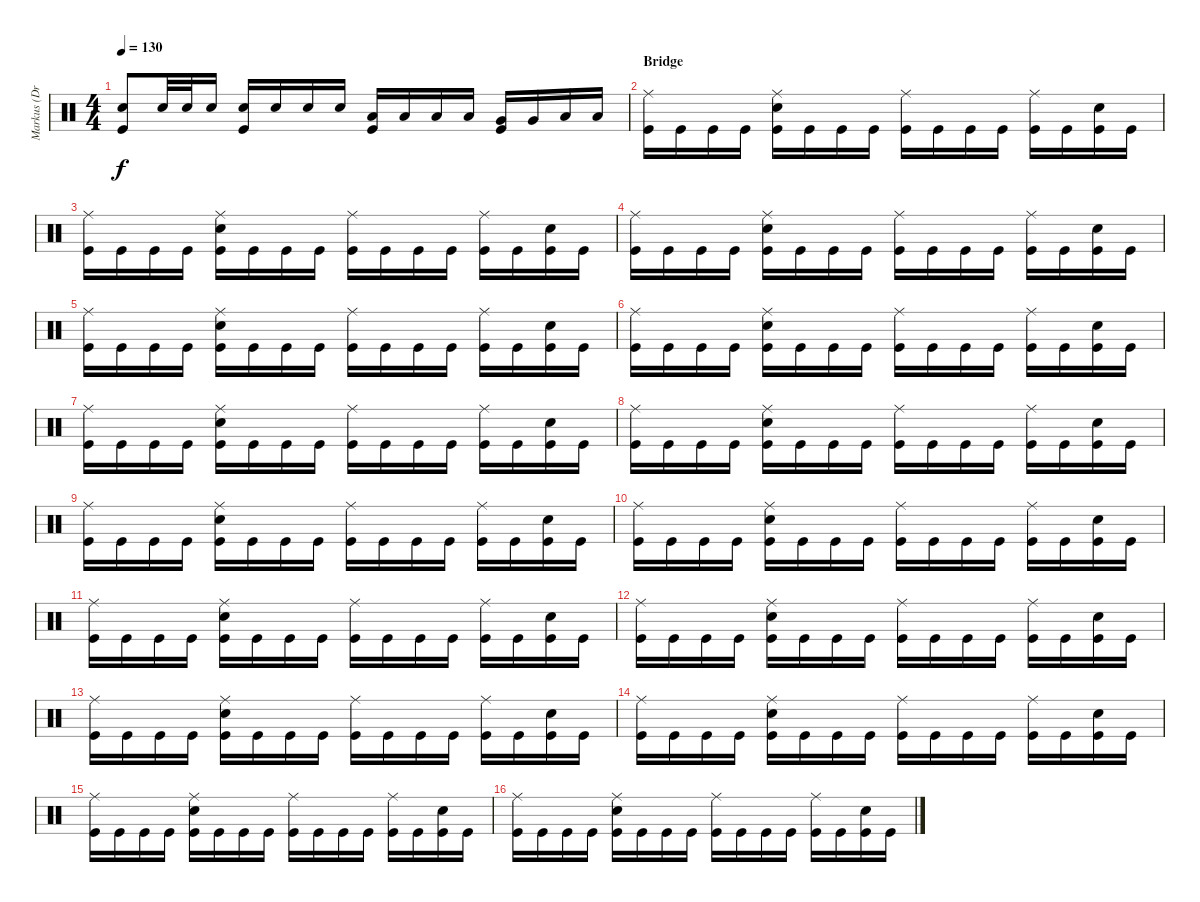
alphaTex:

\track ("Markus (Drums)" "Markus (Dr") {instrument percussion}
\staff {score}
\articulation defaults
\ts (4 4)
\tempo 130
\clef neutral
\ks c
("Electric Snare (hit)" "Kick (hit)").8{dy f} "Electric Snare (hit)".32 "Electric Snare (hit)".32 "Electric Snare (hit)".16 ("Electric Snare (hit)" "Kick (hit)").16 "Electric Snare (hit)".16 "Electric Snare (hit)".16 "Electric Snare (hit)".16 ("Low Tom (hit)" "Kick (hit)").16 "Low Tom (hit)".16 "Low Tom (hit)".16 "Low Tom (hit)".16 ("Very Low Tom (hit)" "Kick (hit)").16 "Very Low Tom (hit)".16 "Low Floor Tom (hit)".16 "Low Floor Tom (hit)".16 |
\section ("" "Bridge")
("Ride (middle)" "Kick (hit)").16 "Kick (hit)".16 "Kick (hit)".16 "Kick (hit)".16 ("Ride (middle)" "Electric Snare (hit)" "Kick (hit)").16 "Kick (hit)".16 "Kick (hit)".16 "Kick (hit)".16 ("Ride (middle)" "Kick (hit)").16 "Kick (hit)".16 "Kick (hit)".16 "Kick (hit)".16 ("Ride (middle)" "Kick (hit)").16 "Kick (hit)".16 ("Electric Snare (hit)" "Kick (hit)").16 "Kick (hit)".16 |
("Ride (middle)" "Kick (hit)").16 "Kick (hit)".16 "Kick (hit)".16 "Kick (hit)".16 ("Ride (middle)" "Electric Snare (hit)" "Kick (hit)").16 "Kick (hit)".16 "Kick (hit)".16 "Kick (hit)".16 ("Ride (middle)" "Kick (hit)").16 "Kick (hit)".16 "Kick (hit)".16 "Kick (hit)".16 ("Ride (middle)" "Kick (hit)").16 "Kick (hit)".16 ("Electric Snare (hit)" "Kick (hit)").16 "Kick (hit)".16 |
("Ride (middle)" "Kick (hit)").16 "Kick (hit)".16 "Kick (hit)".16 "Kick (hit)".16 ("Ride (middle)" "Electric Snare (hit)" "Kick (hit)").16 "Kick (hit)".16 "Kick (hit)".16 "Kick (hit)".16 ("Ride (middle)" "Kick (hit)").16 "Kick (hit)".16 "Kick (hit)".16 "Kick (hit)".16 ("Ride (middle)" "Kick (hit)").16 "Kick (hit)".16 ("Electric Snare (hit)" "Kick (hit)").16 "Kick (hit)".16 |
("Ride (middle)" "Kick (hit)").16 "Kick (hit)".16 "Kick (hit)".16 "Kick (hit)".16 ("Ride (middle)" "Electric Snare (hit)" "Kick (hit)").16 "Kick (hit)".16 "Kick (hit)".16 "Kick (hit)".16 ("Ride (middle)" "Kick (hit)").16 "Kick (hit)".16 "Kick (hit)".16 "Kick (hit)".16 ("Ride (middle)" "Kick (hit)").16 "Kick (hit)".16 ("Electric Snare (hit)" "Kick (hit)").16 "Kick (hit)".16 |
("Ride (middle)" "Kick (hit)").16 "Kick (hit)".16 "Kick (hit)".16 "Kick (hit)".16 ("Ride (middle)" "Electric Snare (hit)" "Kick (hit)").16 "Kick (hit)".16 "Kick (hit)".16 "Kick (hit)".16 ("Ride (middle)" "Kick (hit)").16 "Kick (hit)".16 "Kick (hit)".16 "Kick (hit)".16 ("Ride (middle)" "Kick (hit)").16 "Kick (hit)".16 ("Electric Snare (hit)" "Kick (hit)").16 "Kick (hit)".16 |
("Ride (middle)" "Kick (hit)").16 "Kick (hit)".16 "Kick (hit)".16 "Kick (hit)".16 ("Ride (middle)" "Electric Snare (hit)" "Kick (hit)").16 "Kick (hit)".16 "Kick (hit)".16 "Kick (hit)".16 ("Ride (middle)" "Kick (hit)").16 "Kick (hit)".16 "Kick (hit)".16 "Kick (hit)".16 ("Ride (middle)" "Kick (hit)").16 "Kick (hit)".16 ("Electric Snare (hit)" "Kick (hit)").16 "Kick (hit)".16 |
("Ride (middle)" "Kick (hit)").16 "Kick (hit)".16 "Kick (hit)".16 "Kick (hit)".16 ("Ride (middle)" "Electric Snare (hit)" "Kick (hit)").16 "Kick (hit)".16 "Kick (hit)".16 "Kick (hit)".16 ("Ride (middle)" "Kick (hit)").16 "Kick (hit)".16 "Kick (hit)".16 "Kick (hit)".16 ("Ride (middle)" "Kick (hit)").16 "Kick (hit)".16 ("Electric Snare (hit)" "Kick (hit)").16 "Kick (hit)".16 |
("Ride (middle)" "Kick (hit)").16 "Kick (hit)".16 "Kick (hit)".16 "Kick (hit)".16 ("Ride (middle)" "Electric Snare (hit)" "Kick (hit)").16 "Kick (hit)".16 "Kick (hit)".16 "Kick (hit)".16 ("Ride (middle)" "Kick (hit)").16 "Kick (hit)".16 "Kick (hit)".16 "Kick (hit)".16 ("Ride (middle)" "Kick (hit)").16 "Kick (hit)".16 ("Electric Snare (hit)" "Kick (hit)").16 "Kick (hit)".16 |
("Ride (middle)" "Kick (hit)").16 "Kick (hit)".16 "Kick (hit)".16 "Kick (hit)".16 ("Ride (middle)" "Electric Snare (hit)" "Kick (hit)").16 "Kick (hit)".16 "Kick (hit)".16 "Kick (hit)".16 ("Ride (middle)" "Kick (hit)").16 "Kick (hit)".16 "Kick (hit)".16 "Kick (hit)".16 ("Ride (middle)" "Kick (hit)").16 "Kick (hit)".16 ("Electric Snare (hit)" "Kick (hit)").16 "Kick (hit)".16 |
("Ride (middle)" "Kick (hit)").16 "Kick (hit)".16 "Kick (hit)".16 "Kick (hit)".16 ("Ride (middle)" "Electric Snare (hit)" "Kick (hit)").16 "Kick (hit)".16 "Kick (hit)".16 "Kick (hit)".16 ("Ride (middle)" "Kick (hit)").16 "Kick (hit)".16 "Kick (hit)".16 "Kick (hit)".16 ("Ride (middle)" "Kick (hit)").16 "Kick (hit)".16 ("Electric Snare (hit)" "Kick (hit)").16 "Kick (hit)".16 |
("Ride (middle)" "Kick (hit)").16 "Kick (hit)".16 "Kick (hit)".16 "Kick (hit)".16 ("Ride (middle)" "Electric Snare (hit)" "Kick (hit)").16 "Kick (hit)".16 "Kick (hit)".16 "Kick (hit)".16 ("Ride (middle)" "Kick (hit)").16 "Kick (hit)".16 "Kick (hit)".16 "Kick (hit)".16 ("Ride (middle)" "Kick (hit)").16 "Kick (hit)".16 ("Electric Snare (hit)" "Kick (hit)").16 "Kick (hit)".16 |
("Ride (middle)" "Kick (hit)").16 "Kick (hit)".16 "Kick (hit)".16 "Kick (hit)".16 ("Ride (middle)" "Electric Snare (hit)" "Kick (hit)").16 "Kick (hit)".16 "Kick (hit)".16 "Kick (hit)".16 ("Ride (middle)" "Kick (hit)").16 "Kick (hit)".16 "Kick (hit)".16 "Kick (hit)".16 ("Ride (middle)" "Kick (hit)").16 "Kick (hit)".16 ("Electric Snare (hit)" "Kick (hit)").16 "Kick (hit)".16 |
("Ride (middle)" "Kick (hit)").16 "Kick (hit)".16 "Kick (hit)".16 "Kick (hit)".16 ("Ride (middle)" "Electric Snare (hit)" "Kick (hit)").16 "Kick (hit)".16 "Kick (hit)".16 "Kick (hit)".16 ("Ride (middle)" "Kick (hit)").16 "Kick (hit)".16 "Kick (hit)".16 "Kick (hit)".16 ("Ride (middle)" "Kick (hit)").16 "Kick (hit)".16 ("Electric Snare (hit)" "Kick (hit)").16 "Kick (hit)".16 |
("Ride (middle)" "Kick (hit)").16 "Kick (hit)".16 "Kick (hit)".16 "Kick (hit)".16 ("Ride (middle)" "Electric Snare (hit)" "Kick (hit)").16 "Kick (hit)".16 "Kick (hit)".16 "Kick (hit)".16 ("Ride (middle)" "Kick (hit)").16 "Kick (hit)".16 "Kick (hit)".16 "Kick (hit)".16 ("Ride (middle)" "Kick (hit)").16 "Kick (hit)".16 ("Electric Snare (hit)" "Kick (hit)").16 "Kick (hit)".16 |
("Ride (middle)" "Kick (hit)").16 "Kick (hit)".16 "Kick (hit)".16 "Kick (hit)".16 ("Ride (middle)" "Electric Snare (hit)" "Kick (hit)").16 "Kick (hit)".16 "Kick (hit)".16 "Kick (hit)".16 ("Ride (middle)" "Kick (hit)").16 "Kick (hit)".16 "Kick (hit)".16 "Kick (hit)".16 ("Ride (middle)" "Kick (hit)").16 "Kick (hit)".16 ("Electric Snare (hit)" "Kick (hit)").16 "Kick (hit)".16
